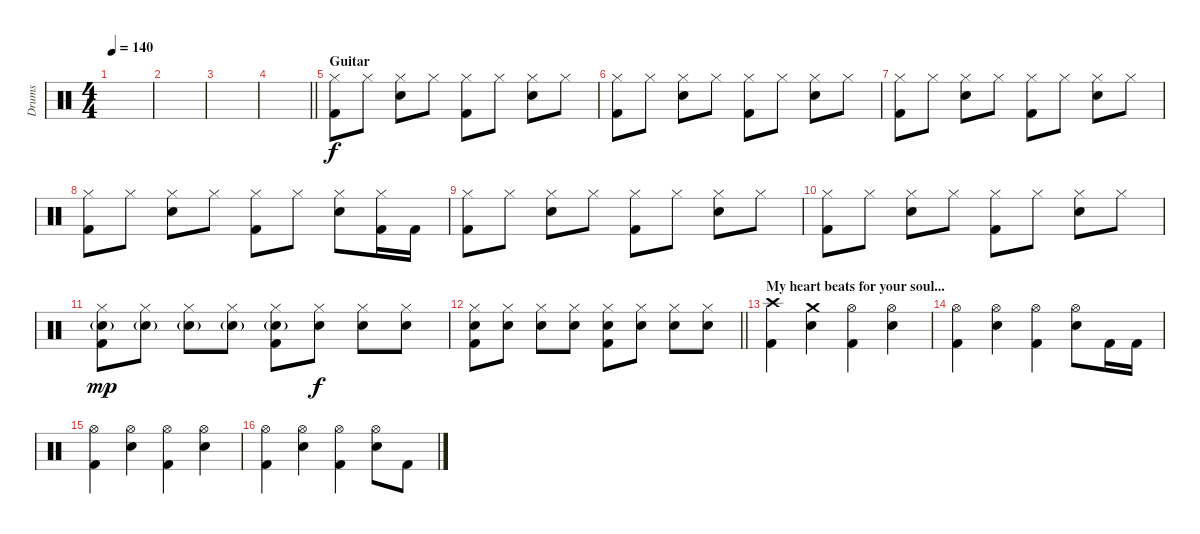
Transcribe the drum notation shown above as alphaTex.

\track ("Drums" "Drums") {instrument percussion}
\staff {score}
\articulation defaults
\ts (4 4)
\tempo 140
\clef neutral
\ks c
|
|
|
\barLineRight lightlight
|
\section ("" "Guitar")
("Hi-Hat (closed)" "Kick (hit) 2").8 "Hi-Hat (closed)".8 ("Hi-Hat (closed)" "Electric Snare (hit)").8 "Hi-Hat (closed)".8 ("Hi-Hat (closed)" "Kick (hit) 2").8 "Hi-Hat (closed)".8 ("Hi-Hat (closed)" "Electric Snare (hit)").8 "Hi-Hat (closed)".8 |
("Hi-Hat (closed)" "Kick (hit) 2").8 "Hi-Hat (closed)".8 ("Hi-Hat (closed)" "Electric Snare (hit)").8 "Hi-Hat (closed)".8 ("Hi-Hat (closed)" "Kick (hit) 2").8 "Hi-Hat (closed)".8 ("Hi-Hat (closed)" "Electric Snare (hit)").8 "Hi-Hat (closed)".8 |
("Hi-Hat (closed)" "Kick (hit) 2").8 "Hi-Hat (closed)".8 ("Hi-Hat (closed)" "Electric Snare (hit)").8 "Hi-Hat (closed)".8 ("Hi-Hat (closed)" "Kick (hit) 2").8 "Hi-Hat (closed)".8 ("Hi-Hat (closed)" "Electric Snare (hit)").8 "Hi-Hat (closed)".8 |
("Hi-Hat (closed)" "Kick (hit) 2").8 "Hi-Hat (closed)".8 ("Hi-Hat (closed)" "Electric Snare (hit)").8 "Hi-Hat (closed)".8 ("Hi-Hat (closed)" "Kick (hit) 2").8 "Hi-Hat (closed)".8 ("Hi-Hat (closed)" "Electric Snare (hit)").8 ("Hi-Hat (closed)" "Kick (hit) 2").16 "Kick (hit) 2".16 |
("Hi-Hat (closed)" "Kick (hit) 2").8 "Hi-Hat (closed)".8 ("Hi-Hat (closed)" "Electric Snare (hit)").8 "Hi-Hat (closed)".8 ("Hi-Hat (closed)" "Kick (hit) 2").8 "Hi-Hat (closed)".8 ("Hi-Hat (closed)" "Electric Snare (hit)").8 "Hi-Hat (closed)".8 |
("Hi-Hat (closed)" "Kick (hit) 2").8 "Hi-Hat (closed)".8 ("Hi-Hat (closed)" "Electric Snare (hit)").8 "Hi-Hat (closed)".8 ("Hi-Hat (closed)" "Kick (hit) 2").8 "Hi-Hat (closed)".8 ("Hi-Hat (closed)" "Electric Snare (hit)").8 "Hi-Hat (closed)".8 |
("Hi-Hat (closed)" "Electric Snare (hit)"{g} "Kick (hit) 2").8{dy mp} ("Hi-Hat (closed)" "Electric Snare (hit)"{g}).8 ("Hi-Hat (closed)" "Electric Snare (hit)"{g}).8 ("Hi-Hat (closed)" "Electric Snare (hit)"{g}).8 ("Hi-Hat (closed)" "Electric Snare (hit)"{g} "Kick (hit) 2").8 ("Hi-Hat (closed)" "Electric Snare (hit)").8{dy f} ("Hi-Hat (closed)" "Electric Snare (hit)").8 ("Hi-Hat (closed)" "Electric Snare (hit)").8 |
\barLineRight lightlight
("Hi-Hat (closed)" "Electric Snare (hit)" "Kick (hit) 2").8 ("Hi-Hat (closed)" "Electric Snare (hit)").8 ("Hi-Hat (closed)" "Electric Snare (hit)").8 ("Hi-Hat (closed)" "Electric Snare (hit)").8 ("Hi-Hat (closed)" "Electric Snare (hit)" "Kick (hit) 2").8 ("Hi-Hat (closed)" "Electric Snare (hit)").8 ("Hi-Hat (closed)" "Electric Snare (hit)").8 ("Hi-Hat (closed)" "Electric Snare (hit)").8 |
\section ("" "My heart beats for your soul...")
("Crash high (hit)" "Kick (hit) 2").4 ("Crash medium (hit)" "Electric Snare (hit)").4 ("Hi-Hat (open)" "Kick (hit) 2").4 ("Hi-Hat (open)" "Electric Snare (hit)").4 |
("Hi-Hat (open)" "Kick (hit) 2").4 ("Hi-Hat (open)" "Electric Snare (hit)").4 ("Hi-Hat (open)" "Kick (hit) 2").4 ("Hi-Hat (open)" "Electric Snare (hit)").8 "Kick (hit) 2".16 "Kick (hit) 2".16 |
("Hi-Hat (open)" "Kick (hit) 2").4 ("Hi-Hat (open)" "Electric Snare (hit)").4 ("Hi-Hat (open)" "Kick (hit) 2").4 ("Hi-Hat (open)" "Electric Snare (hit)").4 |
("Hi-Hat (open)" "Kick (hit) 2").4 ("Hi-Hat (open)" "Electric Snare (hit)").4 ("Hi-Hat (open)" "Kick (hit) 2").4 ("Hi-Hat (open)" "Electric Snare (hit)").8 "Kick (hit) 2".8
